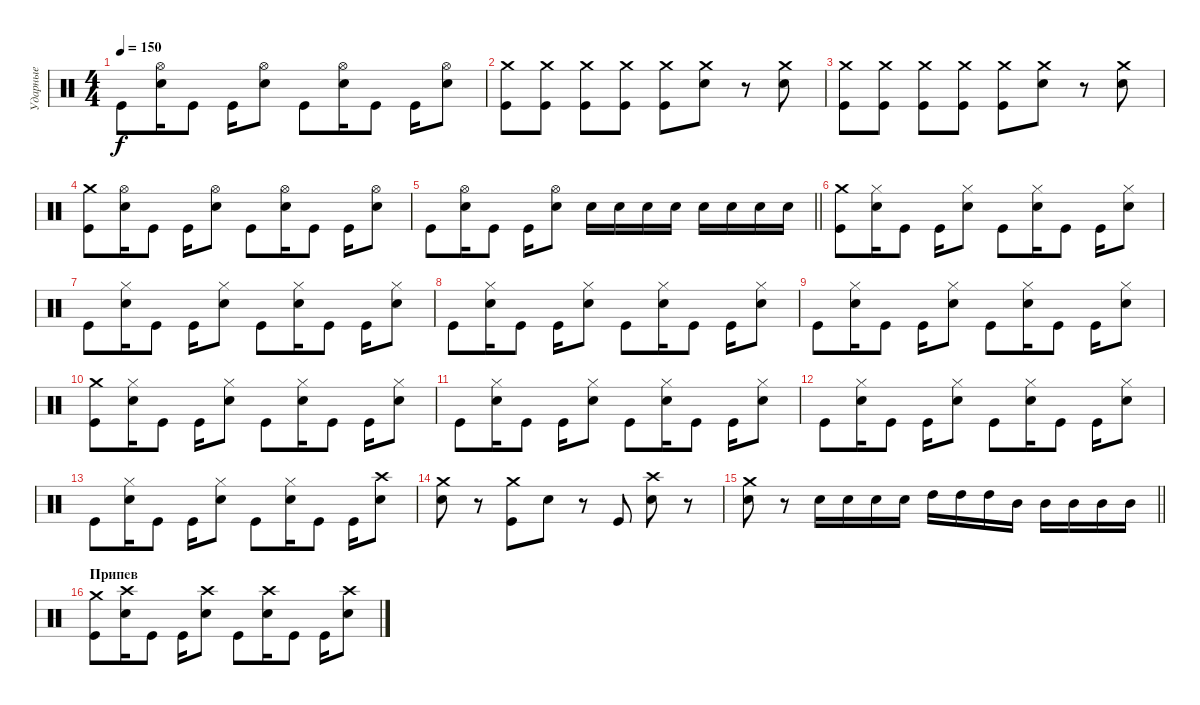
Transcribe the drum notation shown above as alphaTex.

\track ("Ударные" "Ударные") {instrument percussion}
\staff {score}
\articulation defaults
\ts (4 4)
\tempo 150
\clef neutral
\ks c "Kick (hit)".8{dy f}
("Hi-Hat (open)" "Electric Snare (hit)").16 "Kick (hit)".8 "Kick (hit)".16 ("Hi-Hat (open)" "Electric Snare (hit)").8 "Kick (hit)".8 ("Hi-Hat (open)" "Electric Snare (hit)").16 "Kick (hit)".8 "Kick (hit)".16 ("Hi-Hat (open)" "Electric Snare (hit)").8 |
("Crash medium (hit)" "Kick (hit)").8 ("Crash medium (hit)" "Kick (hit)").8 ("Crash medium (hit)" "Kick (hit)").8 ("Crash medium (hit)" "Kick (hit)").8 ("Crash medium (hit)" "Kick (hit)").8 ("Crash medium (hit)" "Electric Snare (hit)").8 r.8 ("Crash medium (hit)" "Electric Snare (hit)").8 |
("Crash medium (hit)" "Kick (hit)").8 ("Crash medium (hit)" "Kick (hit)").8 ("Crash medium (hit)" "Kick (hit)").8 ("Crash medium (hit)" "Kick (hit)").8 ("Crash medium (hit)" "Kick (hit)").8 ("Crash medium (hit)" "Electric Snare (hit)").8 r.8 ("Crash medium (hit)" "Electric Snare (hit)").8 |
("Crash medium (hit)" "Kick (hit)").8 ("Hi-Hat (open)" "Electric Snare (hit)").16 "Kick (hit)".8 "Kick (hit)".16 ("Hi-Hat (open)" "Electric Snare (hit)").8 "Kick (hit)".8 ("Hi-Hat (open)" "Electric Snare (hit)").16 "Kick (hit)".8 "Kick (hit)".16 ("Hi-Hat (open)" "Electric Snare (hit)").8 |
\barLineRight lightlight "Kick (hit)".8
("Hi-Hat (open)" "Electric Snare (hit)").16 "Kick (hit)".8 "Kick (hit)".16 ("Hi-Hat (open)" "Electric Snare (hit)").8 "Electric Snare (hit)".16 "Electric Snare (hit)".16 "Electric Snare (hit)".16 "Electric Snare (hit)".16 "Electric Snare (hit)".16 "Electric Snare (hit)".16 "Electric Snare (hit)".16 "Electric Snare (hit)".16 |
\section ("" " ")
("Crash medium (hit)" "Kick (hit)").8 ("Hi-Hat (closed)" "Electric Snare (hit)").16 "Kick (hit)".8 "Kick (hit)".16 ("Hi-Hat (closed)" "Electric Snare (hit)").8 "Kick (hit)".8 ("Hi-Hat (closed)" "Electric Snare (hit)").16 "Kick (hit)".8 "Kick (hit)".16 ("Hi-Hat (closed)" "Electric Snare (hit)").8 |
"Kick (hit)".8 ("Hi-Hat (closed)" "Electric Snare (hit)").16 "Kick (hit)".8 "Kick (hit)".16 ("Hi-Hat (closed)" "Electric Snare (hit)").8 "Kick (hit)".8 ("Hi-Hat (closed)" "Electric Snare (hit)").16 "Kick (hit)".8 "Kick (hit)".16 ("Hi-Hat (closed)" "Electric Snare (hit)").8 |
"Kick (hit)".8 ("Hi-Hat (closed)" "Electric Snare (hit)").16 "Kick (hit)".8 "Kick (hit)".16 ("Hi-Hat (closed)" "Electric Snare (hit)").8 "Kick (hit)".8 ("Hi-Hat (closed)" "Electric Snare (hit)").16 "Kick (hit)".8 "Kick (hit)".16 ("Hi-Hat (closed)" "Electric Snare (hit)").8 |
"Kick (hit)".8 ("Hi-Hat (closed)" "Electric Snare (hit)").16 "Kick (hit)".8 "Kick (hit)".16 ("Hi-Hat (closed)" "Electric Snare (hit)").8 "Kick (hit)".8 ("Hi-Hat (closed)" "Electric Snare (hit)").16 "Kick (hit)".8 "Kick (hit)".16 ("Hi-Hat (closed)" "Electric Snare (hit)").8 |
("Crash medium (hit)" "Kick (hit)").8 ("Hi-Hat (closed)" "Electric Snare (hit)").16 "Kick (hit)".8 "Kick (hit)".16 ("Hi-Hat (closed)" "Electric Snare (hit)").8 "Kick (hit)".8 ("Hi-Hat (closed)" "Electric Snare (hit)").16 "Kick (hit)".8 "Kick (hit)".16 ("Hi-Hat (closed)" "Electric Snare (hit)").8 |
"Kick (hit)".8 ("Hi-Hat (closed)" "Electric Snare (hit)").16 "Kick (hit)".8 "Kick (hit)".16 ("Hi-Hat (closed)" "Electric Snare (hit)").8 "Kick (hit)".8 ("Hi-Hat (closed)" "Electric Snare (hit)").16 "Kick (hit)".8 "Kick (hit)".16 ("Hi-Hat (closed)" "Electric Snare (hit)").8 |
"Kick (hit)".8 ("Hi-Hat (closed)" "Electric Snare (hit)").16 "Kick (hit)".8 "Kick (hit)".16 ("Hi-Hat (closed)" "Electric Snare (hit)").8 "Kick (hit)".8 ("Hi-Hat (closed)" "Electric Snare (hit)").16 "Kick (hit)".8 "Kick (hit)".16 ("Hi-Hat (closed)" "Electric Snare (hit)").8 |
"Kick (hit)".8 ("Hi-Hat (closed)" "Electric Snare (hit)").16 "Kick (hit)".8 "Kick (hit)".16 ("Hi-Hat (closed)" "Electric Snare (hit)").8 "Kick (hit)".8 ("Hi-Hat (closed)" "Electric Snare (hit)").16 "Kick (hit)".8 "Kick (hit)".16 ("Crash high (hit)" "Electric Snare (hit)").8 |
("Crash medium (hit)" "Electric Snare (hit)").8 r.8 ("Crash medium (hit)" "Kick (hit)").8 "Electric Snare (hit)".8 r.8 "Kick (hit)".8 ("Crash high (hit)" "Electric Snare (hit)").8 r.8 |
\barLineRight lightlight
("Crash medium (hit)" "Electric Snare (hit)").8 r.8 "Electric Snare (hit)".16 "Electric Snare (hit)".16 "Electric Snare (hit)".16 "Electric Snare (hit)".16 "High Tom (hit)".16 "High Tom (hit)".16 "High Tom (hit)".16 "Mid Tom (hit)".16 "Mid Tom (hit)".16 "Mid Tom (hit)".16 "Mid Tom (hit)".16 "Mid Tom (hit)".16 |
\section ("" "Припев")
("Crash medium (hit)" "Kick (hit)").8 ("Crash high (hit)" "Electric Snare (hit)").16 "Kick (hit)".8 "Kick (hit)".16 ("Crash high (hit)" "Electric Snare (hit)").8 "Kick (hit)".8 ("Crash high (hit)" "Electric Snare (hit)").16 "Kick (hit)".8 "Kick (hit)".16 ("Crash high (hit)" "Electric Snare (hit)").8
